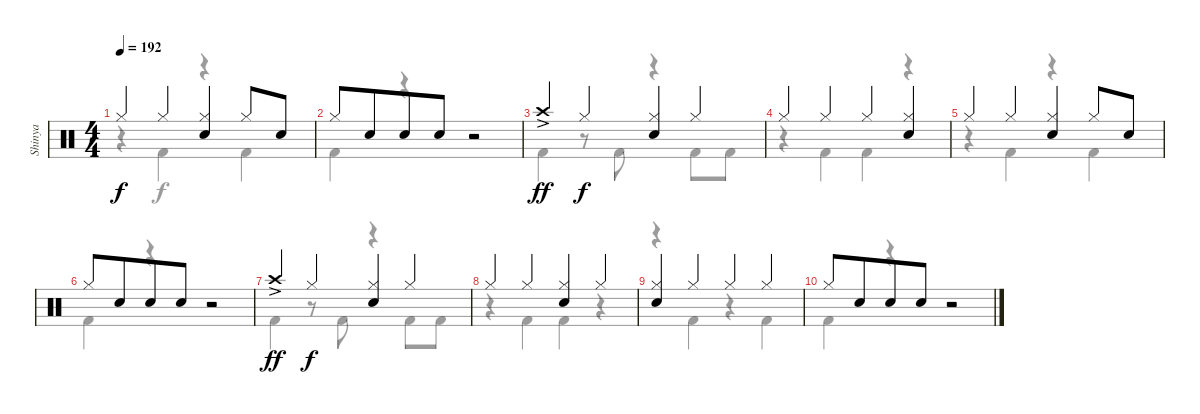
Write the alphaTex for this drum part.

\track ("Shinya" "Shinya") {instrument percussion}
\staff {score}
\articulation defaults
\voice
\ts (4 4)
\tempo 192
\clef neutral
\ks c "Hi-Hat (closed)".4{dy f} "Hi-Hat (closed)".4
("Hi-Hat (closed)" "Snare (hit) 2").4 "Hi-Hat (closed)".8 "Snare (hit) 2".8 |
"Hi-Hat (closed)".8 "Snare (hit) 2".8{beam merge} "Snare (hit) 2".8 "Snare (hit) 2".8 r.2 |
"Crash high (hit)"{ac}.4{dy ff} "Hi-Hat (closed)".4{dy f} ("Hi-Hat (closed)" "Snare (hit) 2").4 "Hi-Hat (closed)".4 |
"Hi-Hat (closed)".4 "Hi-Hat (closed)".4 "Hi-Hat (closed)".4 ("Hi-Hat (closed)" "Snare (hit) 2").4 |
"Hi-Hat (closed)".4 "Hi-Hat (closed)".4 ("Hi-Hat (closed)" "Snare (hit) 2").4 "Hi-Hat (closed)".8 "Snare (hit) 2".8 |
"Hi-Hat (closed)".8 "Snare (hit) 2".8{beam merge} "Snare (hit) 2".8 "Snare (hit) 2".8 r.2 |
"Crash high (hit)"{ac}.4{dy ff} "Hi-Hat (closed)".4{dy f} ("Hi-Hat (closed)" "Snare (hit) 2").4 "Hi-Hat (closed)".4 |
"Hi-Hat (closed)".4 "Hi-Hat (closed)".4 ("Hi-Hat (closed)" "Snare (hit) 2").4 "Hi-Hat (closed)".4 |
("Hi-Hat (closed)" "Snare (hit) 2").4 "Hi-Hat (closed)".4 "Hi-Hat (closed)".4 "Hi-Hat (closed)".4 |
"Hi-Hat (closed)".8 "Snare (hit) 2".8{beam merge} "Snare (hit) 2".8 "Snare (hit) 2".8 r.2
\voice
\clef neutral
\ottava regular
\simile none
\ks c
r.4{dy f} "Kick (hit) 2".4 r.4 "Kick (hit) 2".4 |
"Kick (hit) 2".4 r.4 r.2 |
"Kick (hit) 2".4 r.8 "Kick (hit) 2".8 r.4 "Kick (hit) 2".8 "Kick (hit) 2".8 |
r.4 "Kick (hit) 2".4 "Kick (hit) 2".4 r.4 |
r.4 "Kick (hit) 2".4 r.4 "Kick (hit) 2".4 |
"Kick (hit) 2".4 r.4 r.2 |
"Kick (hit) 2".4 r.8 "Kick (hit) 2".8 r.4 "Kick (hit) 2".8 "Kick (hit) 2".8 |
r.4 "Kick (hit) 2".4 "Kick (hit) 2".4 r.4 |
r.4 "Kick (hit) 2".4 r.4 "Kick (hit) 2".4 |
"Kick (hit) 2".4 r.4 r.2
